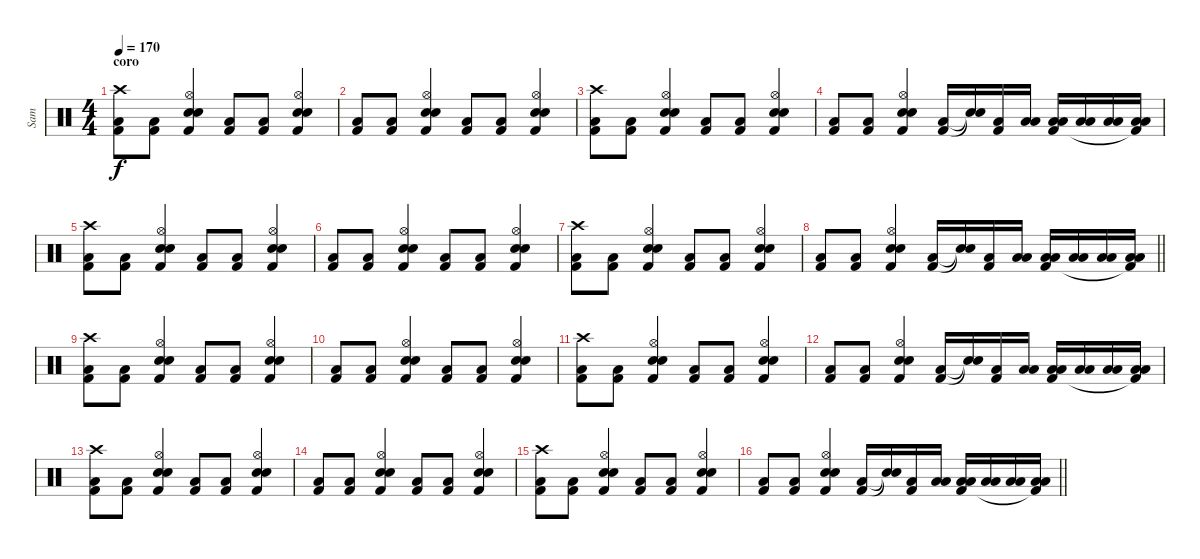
\track ("Sam" "Sam") {instrument percussion}
\staff {score}
\articulation defaults
\ts (4 4)
\section ("" "coro")
\tempo 170
\clef neutral
\ks c
("Crash high (hit)" "Low Floor Tom (hit)" "Kick (hit) 2").8{dy f} ("Low Floor Tom (hit)" "Kick (hit) 2").8 ("Hi-Hat (open)" "Snare (hit) 2" "Snare (hit) 2" "Kick (hit) 2").4 ("Low Floor Tom (hit)" "Kick (hit) 2").8 ("Low Floor Tom (hit)" "Kick (hit) 2").8 ("Hi-Hat (open)" "Snare (hit) 2" "Snare (hit) 2" "Kick (hit) 2").4 |
("Low Floor Tom (hit)" "Kick (hit) 2").8 ("Low Floor Tom (hit)" "Kick (hit) 2").8 ("Hi-Hat (open)" "Snare (hit) 2" "Snare (hit) 2" "Kick (hit) 2").4 ("Low Floor Tom (hit)" "Kick (hit) 2").8 ("Low Floor Tom (hit)" "Kick (hit) 2").8 ("Hi-Hat (open)" "Snare (hit) 2" "Snare (hit) 2" "Kick (hit) 2").4 |
("Crash high (hit)" "Low Floor Tom (hit)" "Kick (hit) 2").8 ("Low Floor Tom (hit)" "Kick (hit) 2").8 ("Hi-Hat (open)" "Snare (hit) 2" "Snare (hit) 2" "Kick (hit) 2").4 ("Low Floor Tom (hit)" "Kick (hit) 2").8 ("Low Floor Tom (hit)" "Kick (hit) 2").8 ("Hi-Hat (open)" "Snare (hit) 2" "Snare (hit) 2" "Kick (hit) 2").4 |
("Low Floor Tom (hit)" "Kick (hit) 2").8 ("Low Floor Tom (hit)" "Kick (hit) 2").8 ("Hi-Hat (open)" "Snare (hit) 2" "Snare (hit) 2" "Kick (hit) 2").4 ("Low Floor Tom (hit)" "Kick (hit) 2").16 ("Snare (hit)"{t} "Snare (hit)"{t}).16 ("Low Floor Tom (hit)" "Kick (hit) 2").16 ("Low Floor Tom (hit)" "Low Tom (hit)").16 ("Low Floor Tom (hit)" "Low Tom (hit)" "Kick (hit) 2").16 ("Low Floor Tom (hit)" "Low Tom (hit)").16 ("Low Floor Tom (hit)" "Low Tom (hit)").16 ("Low Floor Tom (hit)" "Low Tom (hit)" "Kick (hit) 2"{t}).16 |
("Crash high (hit)" "Low Floor Tom (hit)" "Kick (hit) 2").8 ("Low Floor Tom (hit)" "Kick (hit) 2").8 ("Hi-Hat (open)" "Snare (hit) 2" "Snare (hit) 2" "Kick (hit) 2").4 ("Low Floor Tom (hit)" "Kick (hit) 2").8 ("Low Floor Tom (hit)" "Kick (hit) 2").8 ("Hi-Hat (open)" "Snare (hit) 2" "Snare (hit) 2" "Kick (hit) 2").4 |
("Low Floor Tom (hit)" "Kick (hit) 2").8 ("Low Floor Tom (hit)" "Kick (hit) 2").8 ("Hi-Hat (open)" "Snare (hit) 2" "Snare (hit) 2" "Kick (hit) 2").4 ("Low Floor Tom (hit)" "Kick (hit) 2").8 ("Low Floor Tom (hit)" "Kick (hit) 2").8 ("Hi-Hat (open)" "Snare (hit) 2" "Snare (hit) 2" "Kick (hit) 2").4 |
("Crash high (hit)" "Low Floor Tom (hit)" "Kick (hit) 2").8 ("Low Floor Tom (hit)" "Kick (hit) 2").8 ("Hi-Hat (open)" "Snare (hit) 2" "Snare (hit) 2" "Kick (hit) 2").4 ("Low Floor Tom (hit)" "Kick (hit) 2").8 ("Low Floor Tom (hit)" "Kick (hit) 2").8 ("Hi-Hat (open)" "Snare (hit) 2" "Snare (hit) 2" "Kick (hit) 2").4 |
\barLineRight lightlight
("Low Floor Tom (hit)" "Kick (hit) 2").8 ("Low Floor Tom (hit)" "Kick (hit) 2").8 ("Hi-Hat (open)" "Snare (hit) 2" "Snare (hit) 2" "Kick (hit) 2").4 ("Low Floor Tom (hit)" "Kick (hit) 2").16 ("Snare (hit)"{t} "Snare (hit)"{t}).16 ("Low Floor Tom (hit)" "Kick (hit) 2").16 ("Low Floor Tom (hit)" "Low Tom (hit)").16 ("Low Floor Tom (hit)" "Low Tom (hit)" "Kick (hit) 2").16 ("Low Floor Tom (hit)" "Low Tom (hit)").16 ("Low Floor Tom (hit)" "Low Tom (hit)").16 ("Low Floor Tom (hit)" "Low Tom (hit)" "Kick (hit) 2"{t}).16 |
("Crash high (hit)" "Low Floor Tom (hit)" "Kick (hit) 2").8 ("Low Floor Tom (hit)" "Kick (hit) 2").8 ("Hi-Hat (open)" "Snare (hit) 2" "Snare (hit) 2" "Kick (hit) 2").4 ("Low Floor Tom (hit)" "Kick (hit) 2").8 ("Low Floor Tom (hit)" "Kick (hit) 2").8 ("Hi-Hat (open)" "Snare (hit) 2" "Snare (hit) 2" "Kick (hit) 2").4 |
("Low Floor Tom (hit)" "Kick (hit) 2").8 ("Low Floor Tom (hit)" "Kick (hit) 2").8 ("Hi-Hat (open)" "Snare (hit) 2" "Snare (hit) 2" "Kick (hit) 2").4 ("Low Floor Tom (hit)" "Kick (hit) 2").8 ("Low Floor Tom (hit)" "Kick (hit) 2").8 ("Hi-Hat (open)" "Snare (hit) 2" "Snare (hit) 2" "Kick (hit) 2").4 |
("Crash high (hit)" "Low Floor Tom (hit)" "Kick (hit) 2").8 ("Low Floor Tom (hit)" "Kick (hit) 2").8 ("Hi-Hat (open)" "Snare (hit) 2" "Snare (hit) 2" "Kick (hit) 2").4 ("Low Floor Tom (hit)" "Kick (hit) 2").8 ("Low Floor Tom (hit)" "Kick (hit) 2").8 ("Hi-Hat (open)" "Snare (hit) 2" "Snare (hit) 2" "Kick (hit) 2").4 |
("Low Floor Tom (hit)" "Kick (hit) 2").8 ("Low Floor Tom (hit)" "Kick (hit) 2").8 ("Hi-Hat (open)" "Snare (hit) 2" "Snare (hit) 2" "Kick (hit) 2").4 ("Low Floor Tom (hit)" "Kick (hit) 2").16 ("Snare (hit)"{t} "Snare (hit)"{t}).16 ("Low Floor Tom (hit)" "Kick (hit) 2").16 ("Low Floor Tom (hit)" "Low Tom (hit)").16 ("Low Floor Tom (hit)" "Low Tom (hit)" "Kick (hit) 2").16 ("Low Floor Tom (hit)" "Low Tom (hit)").16 ("Low Floor Tom (hit)" "Low Tom (hit)").16 ("Low Floor Tom (hit)" "Low Tom (hit)" "Kick (hit) 2"{t}).16 |
("Crash high (hit)" "Low Floor Tom (hit)" "Kick (hit) 2").8 ("Low Floor Tom (hit)" "Kick (hit) 2").8 ("Hi-Hat (open)" "Snare (hit) 2" "Snare (hit) 2" "Kick (hit) 2").4 ("Low Floor Tom (hit)" "Kick (hit) 2").8 ("Low Floor Tom (hit)" "Kick (hit) 2").8 ("Hi-Hat (open)" "Snare (hit) 2" "Snare (hit) 2" "Kick (hit) 2").4 |
("Low Floor Tom (hit)" "Kick (hit) 2").8 ("Low Floor Tom (hit)" "Kick (hit) 2").8 ("Hi-Hat (open)" "Snare (hit) 2" "Snare (hit) 2" "Kick (hit) 2").4 ("Low Floor Tom (hit)" "Kick (hit) 2").8 ("Low Floor Tom (hit)" "Kick (hit) 2").8 ("Hi-Hat (open)" "Snare (hit) 2" "Snare (hit) 2" "Kick (hit) 2").4 |
("Crash high (hit)" "Low Floor Tom (hit)" "Kick (hit) 2").8 ("Low Floor Tom (hit)" "Kick (hit) 2").8 ("Hi-Hat (open)" "Snare (hit) 2" "Snare (hit) 2" "Kick (hit) 2").4 ("Low Floor Tom (hit)" "Kick (hit) 2").8 ("Low Floor Tom (hit)" "Kick (hit) 2").8 ("Hi-Hat (open)" "Snare (hit) 2" "Snare (hit) 2" "Kick (hit) 2").4 |
\barLineRight lightlight
("Low Floor Tom (hit)" "Kick (hit) 2").8 ("Low Floor Tom (hit)" "Kick (hit) 2").8 ("Hi-Hat (open)" "Snare (hit) 2" "Snare (hit) 2" "Kick (hit) 2").4 ("Low Floor Tom (hit)" "Kick (hit) 2").16 ("Snare (hit)"{t} "Snare (hit)"{t}).16 ("Low Floor Tom (hit)" "Kick (hit) 2").16 ("Low Floor Tom (hit)" "Low Tom (hit)").16 ("Low Floor Tom (hit)" "Low Tom (hit)" "Kick (hit) 2").16 ("Low Floor Tom (hit)" "Low Tom (hit)").16 ("Low Floor Tom (hit)" "Low Tom (hit)").16 ("Low Floor Tom (hit)" "Low Tom (hit)" "Kick (hit) 2"{t}).16
